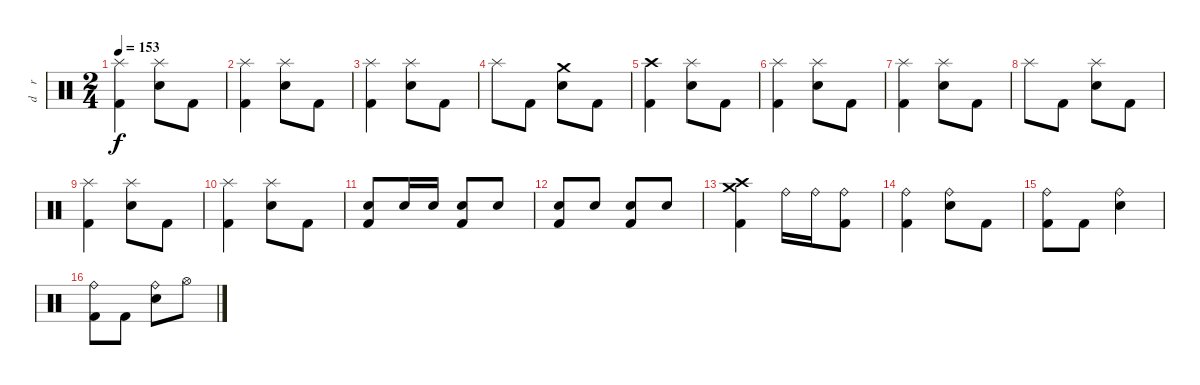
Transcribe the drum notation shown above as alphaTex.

\track ("d    r     u    m    s" "d    r    ") {instrument percussion}
\staff {score}
\articulation defaults
\ts (2 4)
\tempo 153
\clef neutral
\ks c
("Splash (hit)" "Kick (hit) 2").4{dy f} ("Splash (hit)" "Electric Snare (hit)").8 "Kick (hit) 2".8 |
("Splash (hit)" "Kick (hit) 2").4 ("Splash (hit)" "Electric Snare (hit)").8 "Kick (hit) 2".8 |
("Splash (hit)" "Kick (hit) 2").4 ("Splash (hit)" "Electric Snare (hit)").8 "Kick (hit) 2".8 |
"Splash (hit)".8 "Kick (hit) 2".8 ("Crash medium (hit)" "Electric Snare (hit)").8 "Kick (hit) 2".8 |
("Crash high (hit)" "Kick (hit) 2").4 ("Splash (hit)" "Electric Snare (hit)").8 "Kick (hit) 2".8 |
("Splash (hit)" "Kick (hit) 2").4 ("Splash (hit)" "Electric Snare (hit)").8 "Kick (hit) 2".8 |
("Splash (hit)" "Kick (hit) 2").4 ("Splash (hit)" "Electric Snare (hit)").8 "Kick (hit) 2".8 |
"Splash (hit)".8 "Kick (hit) 2".8 ("Splash (hit)" "Electric Snare (hit)").8 "Kick (hit) 2".8 |
("Splash (hit)" "Kick (hit) 2").4 ("Splash (hit)" "Electric Snare (hit)").8 "Kick (hit) 2".8 |
("Splash (hit)" "Kick (hit) 2").4 ("Splash (hit)" "Electric Snare (hit)").8 "Kick (hit) 2".8 |
("Electric Snare (hit)" "Kick (hit) 2").8 "Electric Snare (hit)".16 "Electric Snare (hit)".16 ("Electric Snare (hit)" "Kick (hit) 2").8 "Electric Snare (hit)".8 |
("Electric Snare (hit)" "Kick (hit) 2").8 "Electric Snare (hit)".8 ("Electric Snare (hit)" "Kick (hit) 2").8 "Electric Snare (hit)".8 |
("Crash high (hit)" "Crash medium (hit)" "Kick (hit) 2").4 "Ride (bell)".16 "Ride (bell)".16 ("Ride (bell)" "Kick (hit) 2").8 |
("Ride (bell)" "Kick (hit) 2").4 ("Ride (bell)" "Electric Snare (hit)").8 "Kick (hit) 2".8 |
("Ride (bell)" "Kick (hit) 2").8 "Kick (hit) 2".8 ("Ride (bell)" "Electric Snare (hit)").4 |
("Ride (bell)" "Kick (hit) 2").8 "Kick (hit) 2".8 ("Ride (bell)" "Electric Snare (hit)").8 "Hi-Hat (open)".8
